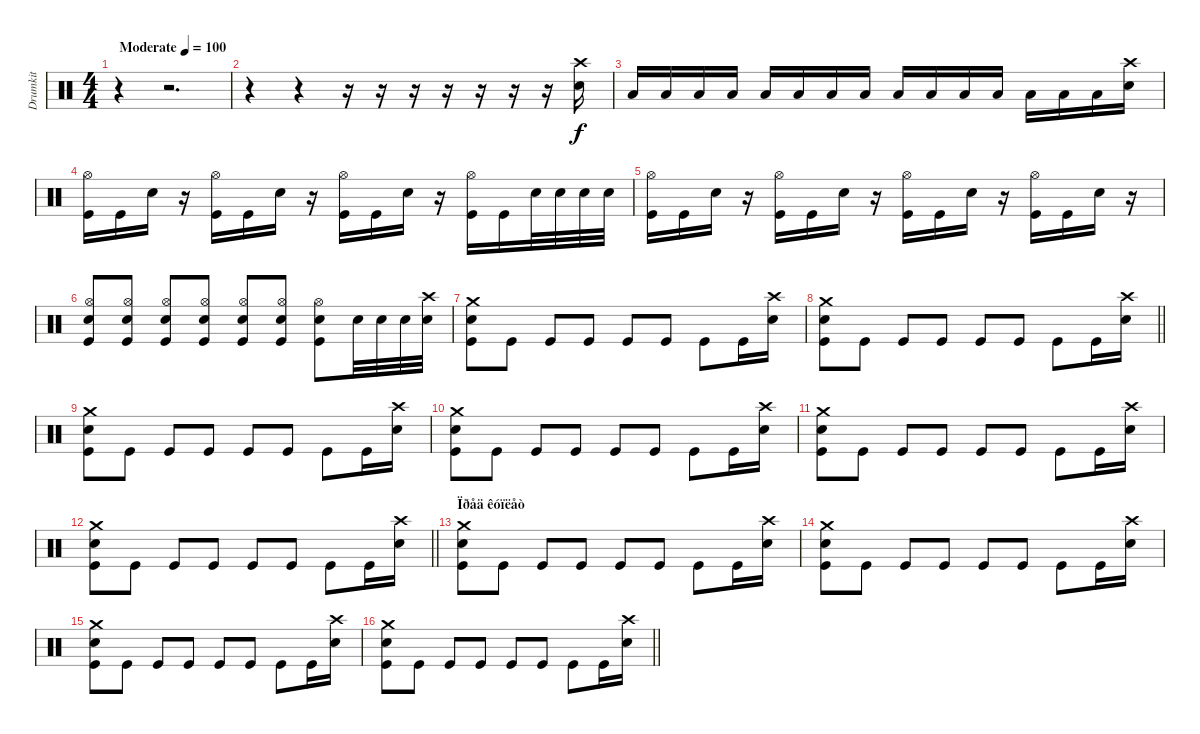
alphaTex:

\track ("Drumkit" "Drumkit") {instrument percussion}
\staff {score}
\articulation defaults
\ts (4 4)
\tempo (100 "Moderate")
\clef neutral
\ks c
r.4{dy f} r.2{d} |
r.4 r.4 r.16 r.16 r.16 r.16 r.16 r.16 r.16 ("Crash high (hit)" "Snare (hit) 2").16 |
"Low Tom (hit)".16 "Low Tom (hit)".16 "Low Floor Tom (hit)".16 "Low Floor Tom (hit)".16 "Low Tom (hit)".16 "Low Tom (hit)".16 "Low Floor Tom (hit)".16 "Low Floor Tom (hit)".16 "Low Tom (hit)".16 "Low Tom (hit)".16 "Low Floor Tom (hit)".16 "Low Floor Tom (hit)".16 "Low Tom (hit)".16 "Low Tom (hit)".16 "Low Floor Tom (hit)".16 ("Crash high (hit)" "Snare (hit) 2").16 |
("Hi-Hat (open)" "Kick (hit)").16 "Kick (hit)".16 "Snare (hit) 2".16 r.16 ("Hi-Hat (open)" "Kick (hit)").16 "Kick (hit)".16 "Snare (hit) 2".16 r.16 ("Hi-Hat (open)" "Kick (hit)").16 "Kick (hit)".16 "Snare (hit) 2".16 r.16 ("Hi-Hat (open)" "Kick (hit)").16 "Kick (hit)".16 "Snare (hit) 2".32 "Snare (hit) 2".32 "Snare (hit) 2".32 "Snare (hit) 2".32 |
("Hi-Hat (open)" "Kick (hit)").16 "Kick (hit)".16 "Snare (hit) 2".16 r.16 ("Hi-Hat (open)" "Kick (hit)").16 "Kick (hit)".16 "Snare (hit) 2".16 r.16 ("Hi-Hat (open)" "Kick (hit)").16 "Kick (hit)".16 "Snare (hit) 2".16 r.16 ("Hi-Hat (open)" "Kick (hit)").16 "Kick (hit)".16 "Snare (hit) 2".16 r.16 |
("Hi-Hat (open)" "Snare (hit) 2" "Kick (hit)").8 ("Hi-Hat (open)" "Snare (hit) 2" "Kick (hit)").8 ("Hi-Hat (open)" "Snare (hit) 2" "Kick (hit)").8 ("Hi-Hat (open)" "Snare (hit) 2" "Kick (hit)").8 ("Hi-Hat (open)" "Snare (hit) 2" "Kick (hit)").8 ("Hi-Hat (open)" "Snare (hit) 2" "Kick (hit)").8 ("Hi-Hat (open)" "Snare (hit) 2" "Kick (hit)").8 "Snare (hit) 2".32 "Snare (hit) 2".32 "Snare (hit) 2".32 ("Crash high (hit)" "Snare (hit) 2").32 |
("Crash medium (hit)" "Snare (hit) 2" "Kick (hit)").8 "Kick (hit)".8 "Kick (hit)".8 "Kick (hit)".8 "Kick (hit)".8 "Kick (hit)".8 "Kick (hit)".8 "Kick (hit)".16 ("Crash high (hit)" "Snare (hit) 2").16 |
\barLineRight lightlight
("Crash medium (hit)" "Snare (hit) 2" "Kick (hit)").8 "Kick (hit)".8 "Kick (hit)".8 "Kick (hit)".8 "Kick (hit)".8 "Kick (hit)".8 "Kick (hit)".8 "Kick (hit)".16 ("Crash high (hit)" "Snare (hit) 2").16 |
("Crash medium (hit)" "Snare (hit) 2" "Kick (hit)").8 "Kick (hit)".8 "Kick (hit)".8 "Kick (hit)".8 "Kick (hit)".8 "Kick (hit)".8 "Kick (hit)".8 "Kick (hit)".16 ("Crash high (hit)" "Snare (hit) 2").16 |
("Crash medium (hit)" "Snare (hit) 2" "Kick (hit)").8 "Kick (hit)".8 "Kick (hit)".8 "Kick (hit)".8 "Kick (hit)".8 "Kick (hit)".8 "Kick (hit)".8 "Kick (hit)".16 ("Crash high (hit)" "Snare (hit) 2").16 |
("Crash medium (hit)" "Snare (hit) 2" "Kick (hit)").8 "Kick (hit)".8 "Kick (hit)".8 "Kick (hit)".8 "Kick (hit)".8 "Kick (hit)".8 "Kick (hit)".8 "Kick (hit)".16 ("Crash high (hit)" "Snare (hit) 2").16 |
\barLineRight lightlight
("Crash medium (hit)" "Snare (hit) 2" "Kick (hit)").8 "Kick (hit)".8 "Kick (hit)".8 "Kick (hit)".8 "Kick (hit)".8 "Kick (hit)".8 "Kick (hit)".8 "Kick (hit)".16 ("Crash high (hit)" "Snare (hit) 2").16 |
\section ("" "Ïðåä êóïëåò")
("Crash medium (hit)" "Snare (hit) 2" "Kick (hit)").8 "Kick (hit)".8 "Kick (hit)".8 "Kick (hit)".8 "Kick (hit)".8 "Kick (hit)".8 "Kick (hit)".8 "Kick (hit)".16 ("Crash high (hit)" "Snare (hit) 2").16 |
("Crash medium (hit)" "Snare (hit) 2" "Kick (hit)").8 "Kick (hit)".8 "Kick (hit)".8 "Kick (hit)".8 "Kick (hit)".8 "Kick (hit)".8 "Kick (hit)".8 "Kick (hit)".16 ("Crash high (hit)" "Snare (hit) 2").16 |
("Crash medium (hit)" "Snare (hit) 2" "Kick (hit)").8 "Kick (hit)".8 "Kick (hit)".8 "Kick (hit)".8 "Kick (hit)".8 "Kick (hit)".8 "Kick (hit)".8 "Kick (hit)".16 ("Crash high (hit)" "Snare (hit) 2").16 |
\barLineRight lightlight
("Crash medium (hit)" "Snare (hit) 2" "Kick (hit)").8 "Kick (hit)".8 "Kick (hit)".8 "Kick (hit)".8 "Kick (hit)".8 "Kick (hit)".8 "Kick (hit)".8 "Kick (hit)".16 ("Crash high (hit)" "Snare (hit) 2").16
